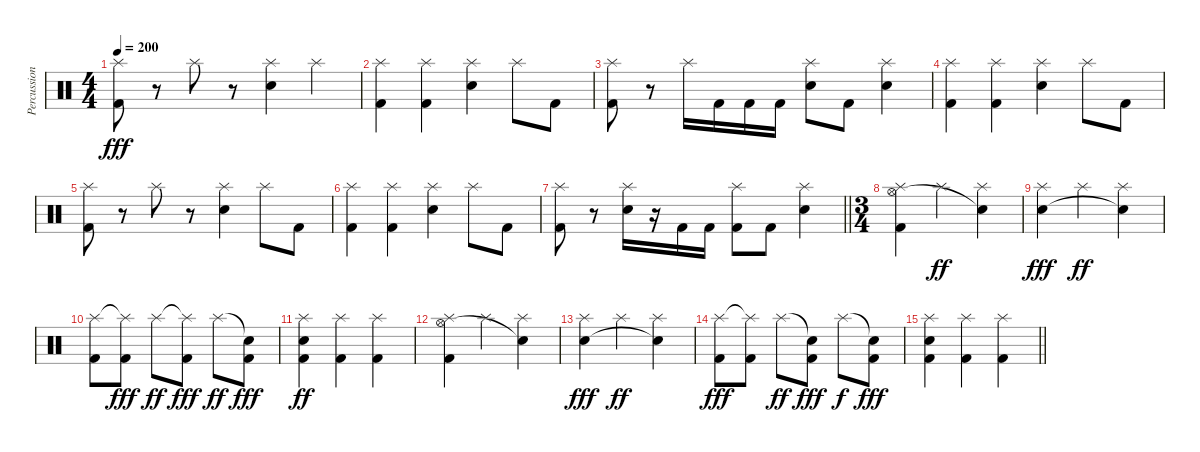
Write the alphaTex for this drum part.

\track ("Percussion" "Percussion") {instrument percussion}
\staff {score}
\articulation defaults
\ts (4 4)
\tempo 200
\clef neutral
\ks c
("Splash (hit)" "Kick (hit) 2").8{dy fff} r.8 "Splash (hit)".8 r.8 ("Splash (hit)" "Electric Snare (hit)").4 "Splash (hit)".4 |
("Splash (hit)" "Kick (hit) 2").4 ("Splash (hit)" "Kick (hit) 2").4 ("Splash (hit)" "Electric Snare (hit)").4 "Splash (hit)".8 "Kick (hit) 2".8 |
("Splash (hit)" "Kick (hit) 2").8 r.8 "Splash (hit)".16 "Kick (hit) 2".16 "Kick (hit) 2".16 "Kick (hit) 2".16 ("Splash (hit)" "Electric Snare (hit)").8 "Kick (hit) 2".8 ("Splash (hit)" "Electric Snare (hit)").4 |
("Splash (hit)" "Kick (hit) 2").4 ("Splash (hit)" "Kick (hit) 2").4 ("Splash (hit)" "Electric Snare (hit)").4 "Splash (hit)".8 "Kick (hit) 2".8 |
("Splash (hit)" "Kick (hit) 2").8 r.8 "Splash (hit)".8 r.8 ("Splash (hit)" "Electric Snare (hit)").4 "Splash (hit)".8 "Kick (hit) 2".8 |
("Splash (hit)" "Kick (hit) 2").4 ("Splash (hit)" "Kick (hit) 2").4 ("Splash (hit)" "Electric Snare (hit)").4 "Splash (hit)".8 "Kick (hit) 2".8 |
\barLineRight lightlight
("Splash (hit)" "Kick (hit) 2").8 r.8 ("Splash (hit)" "Electric Snare (hit)").16 r.16 "Kick (hit) 2".16 "Kick (hit) 2".16 ("Splash (hit)" "Kick (hit) 2").8 "Kick (hit) 2".8 ("Splash (hit)" "Electric Snare (hit)").4 |
\ts (3 4)
("Splash (hit)" "Hi-Hat (open)" "Kick (hit) 2").4 "Splash (hit)".4{dy ff} ("Splash (hit)" "Snare (hit)"{t}).4 |
("Splash (hit)" "Electric Snare (hit)").4{dy fff} "Splash (hit)".4{dy ff} ("Splash (hit)" "Snare (hit)"{t}).4 |
("Splash (hit)" "Kick (hit) 2").8 ("Splash (hit)"{t} "Kick (hit) 2").8{dy fff} "Splash (hit)".8{dy ff} ("Splash (hit)"{t} "Kick (hit) 2").8{dy fff} "Splash (hit)".8{dy ff} ("Snare (hit)"{t} "Kick (hit) 2").8{dy fff} |
("Splash (hit)" "Electric Snare (hit)" "Kick (hit) 2").4{dy ff} ("Splash (hit)" "Kick (hit) 2").4 ("Splash (hit)" "Kick (hit) 2").4 |
("Splash (hit)" "Hi-Hat (open)" "Kick (hit) 2").4 "Splash (hit)".4 ("Splash (hit)" "Snare (hit)"{t}).4 |
("Splash (hit)" "Electric Snare (hit)").4{dy fff} "Splash (hit)".4{dy ff} ("Splash (hit)" "Snare (hit)"{t}).4 |
("Splash (hit)" "Kick (hit) 2").8{dy fff} ("Splash (hit)"{t} "Kick (hit) 2").8 "Splash (hit)".8{dy ff} ("Snare (hit)"{t} "Kick (hit) 2").8{dy fff} "Splash (hit)".8{dy f} ("Snare (hit)"{t} "Kick (hit) 2").8{dy fff} |
\barLineRight lightlight
("Splash (hit)" "Electric Snare (hit)" "Kick (hit) 2").4 ("Splash (hit)" "Kick (hit) 2").4 ("Splash (hit)" "Kick (hit) 2").4
